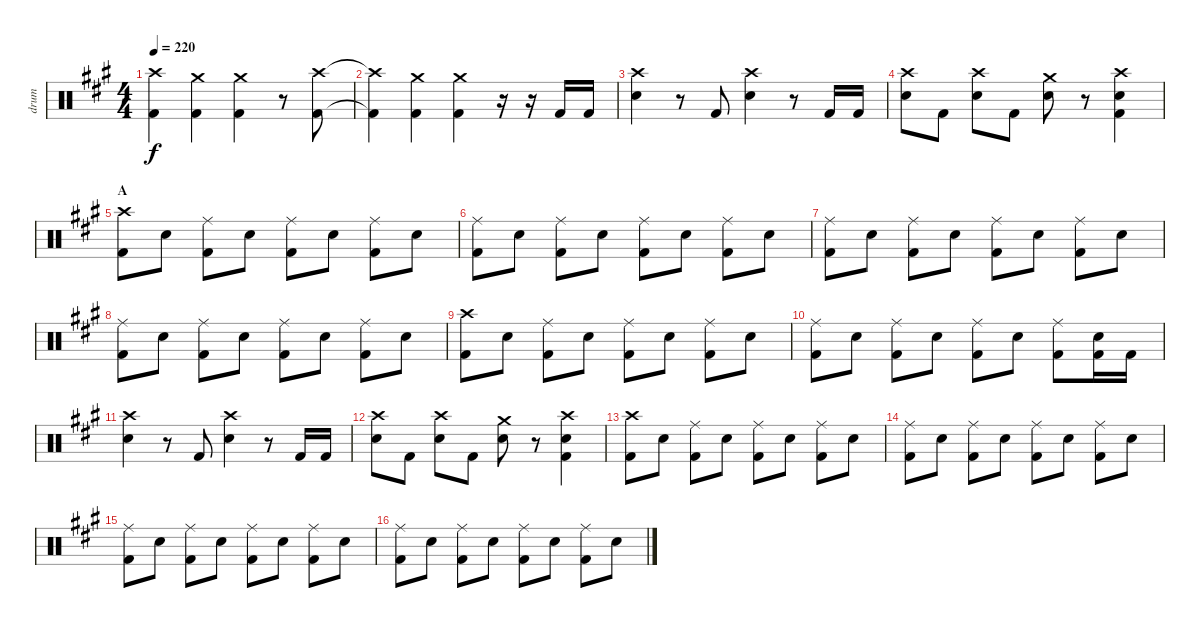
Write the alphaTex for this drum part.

\track ("drum" "drum") {instrument percussion}
\staff {score}
\articulation defaults
\ts (4 4)
\tempo 220
\clef neutral
\ks a
("Crash high (hit)" "Kick (hit) 2").4{dy f} ("Crash medium (hit)" "Kick (hit) 2").4 ("Crash medium (hit)" "Kick (hit) 2").4 r.8 ("Crash high (hit)" "Kick (hit) 2").8 |
("Crash high (hit)"{t} "Kick (hit) 2"{t}).4 ("Crash medium (hit)" "Kick (hit) 2").4 ("Crash medium (hit)" "Kick (hit) 2").4 r.16 r.16 "Kick (hit) 2".16 "Kick (hit) 2".16 |
("Crash high (hit)" "Electric Snare (hit)").4 r.8 "Kick (hit) 2".8 ("Crash high (hit)" "Electric Snare (hit)").4 r.8 "Kick (hit) 2".16 "Kick (hit) 2".16 |
("Crash high (hit)" "Electric Snare (hit)").8 "Kick (hit) 2".8 ("Crash high (hit)" "Electric Snare (hit)").8 "Kick (hit) 2".8 ("Crash medium (hit)" "Electric Snare (hit)").8 r.8 ("Crash high (hit)" "Electric Snare (hit)" "Kick (hit) 2").4 |
\section ("" "A")
("Crash high (hit)" "Kick (hit) 2").8 "Electric Snare (hit)".8 ("Ride (middle)" "Kick (hit) 2").8 "Electric Snare (hit)".8 ("Ride (middle)" "Kick (hit) 2").8 "Electric Snare (hit)".8 ("Ride (middle)" "Kick (hit) 2").8 "Electric Snare (hit)".8 |
("Ride (middle)" "Kick (hit) 2").8 "Electric Snare (hit)".8 ("Ride (middle)" "Kick (hit) 2").8 "Electric Snare (hit)".8 ("Ride (middle)" "Kick (hit) 2").8 "Electric Snare (hit)".8 ("Ride (middle)" "Kick (hit) 2").8 "Electric Snare (hit)".8 |
("Ride (middle)" "Kick (hit) 2").8 "Electric Snare (hit)".8 ("Ride (middle)" "Kick (hit) 2").8 "Electric Snare (hit)".8 ("Ride (middle)" "Kick (hit) 2").8 "Electric Snare (hit)".8 ("Ride (middle)" "Kick (hit) 2").8 "Electric Snare (hit)".8 |
("Ride (middle)" "Kick (hit) 2").8 "Electric Snare (hit)".8 ("Ride (middle)" "Kick (hit) 2").8 "Electric Snare (hit)".8 ("Ride (middle)" "Kick (hit) 2").8 "Electric Snare (hit)".8 ("Ride (middle)" "Kick (hit) 2").8 "Electric Snare (hit)".8 |
("Crash high (hit)" "Kick (hit) 2").8 "Electric Snare (hit)".8 ("Ride (middle)" "Kick (hit) 2").8 "Electric Snare (hit)".8 ("Ride (middle)" "Kick (hit) 2").8 "Electric Snare (hit)".8 ("Ride (middle)" "Kick (hit) 2").8 "Electric Snare (hit)".8 |
("Ride (middle)" "Kick (hit) 2").8 "Electric Snare (hit)".8 ("Ride (middle)" "Kick (hit) 2").8 "Electric Snare (hit)".8 ("Ride (middle)" "Kick (hit) 2").8 "Electric Snare (hit)".8 ("Ride (middle)" "Kick (hit) 2").8 ("Electric Snare (hit)" "Kick (hit) 2").16 "Kick (hit) 2".16 |
("Crash high (hit)" "Electric Snare (hit)").4 r.8 "Kick (hit) 2".8 ("Crash high (hit)" "Electric Snare (hit)").4 r.8 "Kick (hit) 2".16 "Kick (hit) 2".16 |
("Crash high (hit)" "Electric Snare (hit)").8 "Kick (hit) 2".8 ("Crash high (hit)" "Electric Snare (hit)").8 "Kick (hit) 2".8 ("Crash medium (hit)" "Electric Snare (hit)").8 r.8 ("Crash high (hit)" "Electric Snare (hit)" "Kick (hit) 2").4 |
("Crash high (hit)" "Kick (hit) 2").8 "Electric Snare (hit)".8 ("Ride (middle)" "Kick (hit) 2").8 "Electric Snare (hit)".8 ("Ride (middle)" "Kick (hit) 2").8 "Electric Snare (hit)".8 ("Ride (middle)" "Kick (hit) 2").8 "Electric Snare (hit)".8 |
("Ride (middle)" "Kick (hit) 2").8 "Electric Snare (hit)".8 ("Ride (middle)" "Kick (hit) 2").8 "Electric Snare (hit)".8 ("Ride (middle)" "Kick (hit) 2").8 "Electric Snare (hit)".8 ("Ride (middle)" "Kick (hit) 2").8 "Electric Snare (hit)".8 |
("Ride (middle)" "Kick (hit) 2").8 "Electric Snare (hit)".8 ("Ride (middle)" "Kick (hit) 2").8 "Electric Snare (hit)".8 ("Ride (middle)" "Kick (hit) 2").8 "Electric Snare (hit)".8 ("Ride (middle)" "Kick (hit) 2").8 "Electric Snare (hit)".8 |
("Ride (middle)" "Kick (hit) 2").8 "Electric Snare (hit)".8 ("Ride (middle)" "Kick (hit) 2").8 "Electric Snare (hit)".8 ("Ride (middle)" "Kick (hit) 2").8 "Electric Snare (hit)".8 ("Ride (middle)" "Kick (hit) 2").8 "Electric Snare (hit)".8
